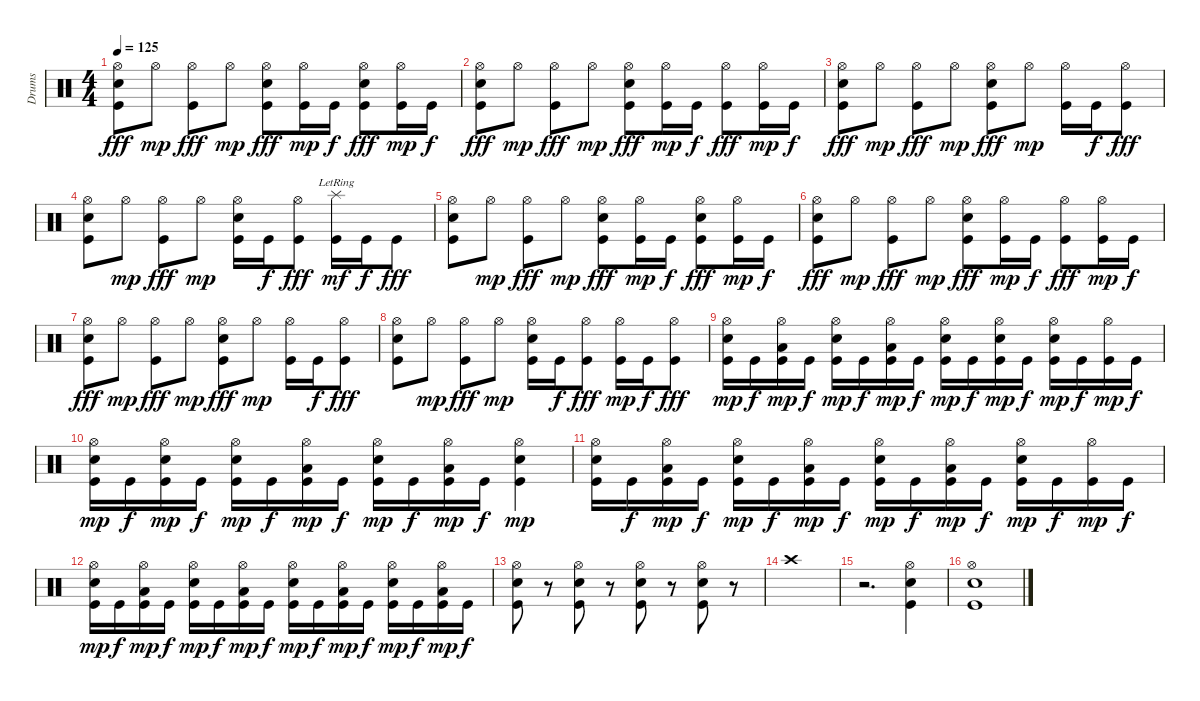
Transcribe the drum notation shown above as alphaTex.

\track ("Drums" "Drums") {instrument percussion}
\staff {score}
\articulation defaults
\ts (4 4)
\tempo 125
\clef neutral
\ks c
("Hi-Hat (open)" "Snare (hit) 2" "Kick (hit)").8{dy fff} "Hi-Hat (open)".8{dy mp} ("Hi-Hat (open)" "Kick (hit)").8{dy fff} "Hi-Hat (open)".8{dy mp} ("Hi-Hat (open)" "Snare (hit) 2" "Kick (hit)").8{dy fff} ("Hi-Hat (open)" "Kick (hit)").16{dy mp} "Kick (hit)".16{dy f} ("Hi-Hat (open)" "Snare (hit) 2" "Kick (hit)").8{dy fff} ("Hi-Hat (open)" "Kick (hit)").16{dy mp} "Kick (hit)".16{dy f} |
("Hi-Hat (open)" "Snare (hit) 2" "Kick (hit)").8{dy fff} "Hi-Hat (open)".8{dy mp} ("Hi-Hat (open)" "Kick (hit)").8{dy fff} "Hi-Hat (open)".8{dy mp} ("Hi-Hat (open)" "Snare (hit) 2" "Kick (hit)").8{dy fff} ("Hi-Hat (open)" "Kick (hit)").16{dy mp} "Kick (hit)".16{dy f} ("Hi-Hat (open)" "Kick (hit)").8{dy fff} ("Hi-Hat (open)" "Kick (hit)").16{dy mp} "Kick (hit)".16{dy f} |
("Hi-Hat (open)" "Snare (hit) 2" "Kick (hit)").8{dy fff} "Hi-Hat (open)".8{dy mp} ("Hi-Hat (open)" "Kick (hit)").8{dy fff} "Hi-Hat (open)".8{dy mp} ("Hi-Hat (open)" "Snare (hit) 2" "Kick (hit)").8{dy fff} "Hi-Hat (open)".8{dy mp} ("Hi-Hat (open)" "Kick (hit)").16 "Kick (hit)".16{dy f} ("Hi-Hat (open)" "Kick (hit)").8{dy fff} |
("Hi-Hat (open)" "Snare (hit) 2" "Kick (hit)").8 "Hi-Hat (open)".8{dy mp} ("Hi-Hat (open)" "Kick (hit)").8{dy fff} "Hi-Hat (open)".8{dy mp} ("Hi-Hat (open)" "Snare (hit) 2" "Kick (hit)").16 "Kick (hit)".16{dy f} ("Hi-Hat (open)" "Kick (hit)").8{dy fff} ("Splash (hit)"{lr} "Kick (hit)").16{dy mf} "Kick (hit)".16{dy f} "Kick (hit)".8{dy fff} |
("Hi-Hat (open)" "Snare (hit) 2" "Kick (hit)").8 "Hi-Hat (open)".8{dy mp} ("Hi-Hat (open)" "Kick (hit)").8{dy fff} "Hi-Hat (open)".8{dy mp} ("Hi-Hat (open)" "Snare (hit) 2" "Kick (hit)").8{dy fff} ("Hi-Hat (open)" "Kick (hit)").16{dy mp} "Kick (hit)".16{dy f} ("Hi-Hat (open)" "Snare (hit) 2" "Kick (hit)").8{dy fff} ("Hi-Hat (open)" "Kick (hit)").16{dy mp} "Kick (hit)".16{dy f} |
("Hi-Hat (open)" "Snare (hit) 2" "Kick (hit)").8{dy fff} "Hi-Hat (open)".8{dy mp} ("Hi-Hat (open)" "Kick (hit)").8{dy fff} "Hi-Hat (open)".8{dy mp} ("Hi-Hat (open)" "Snare (hit) 2" "Kick (hit)").8{dy fff} ("Hi-Hat (open)" "Kick (hit)").16{dy mp} "Kick (hit)".16{dy f} ("Hi-Hat (open)" "Kick (hit)").8{dy fff} ("Hi-Hat (open)" "Kick (hit)").16{dy mp} "Kick (hit)".16{dy f} |
("Hi-Hat (open)" "Snare (hit) 2" "Kick (hit)").8{dy fff} "Hi-Hat (open)".8{dy mp} ("Hi-Hat (open)" "Kick (hit)").8{dy fff} "Hi-Hat (open)".8{dy mp} ("Hi-Hat (open)" "Snare (hit) 2" "Kick (hit)").8{dy fff} "Hi-Hat (open)".8{dy mp} ("Hi-Hat (open)" "Kick (hit)").16 "Kick (hit)".16{dy f} ("Hi-Hat (open)" "Kick (hit)").8{dy fff} |
("Hi-Hat (open)" "Snare (hit) 2" "Kick (hit)").8 "Hi-Hat (open)".8{dy mp} ("Hi-Hat (open)" "Kick (hit)").8{dy fff} "Hi-Hat (open)".8{dy mp} ("Hi-Hat (open)" "Snare (hit) 2" "Kick (hit)").16 "Kick (hit)".16{dy f} ("Hi-Hat (open)" "Kick (hit)").8{dy fff} ("Hi-Hat (open)" "Kick (hit)").16{dy mp} "Kick (hit)".16{dy f} ("Hi-Hat (open)" "Kick (hit)").8{dy fff} |
("Hi-Hat (open)" "Snare (hit) 2" "Kick (hit)").16{dy mp} "Kick (hit)".16{dy f} ("Hi-Hat (open)" "Low Floor Tom (hit)" "Kick (hit)").16{dy mp} "Kick (hit)".16{dy f} ("Hi-Hat (open)" "Snare (hit) 2" "Kick (hit)").16{dy mp} "Kick (hit)".16{dy f} ("Hi-Hat (open)" "Low Floor Tom (hit)" "Kick (hit)").16{dy mp} "Kick (hit)".16{dy f} ("Hi-Hat (open)" "Electric Snare (hit)" "Kick (hit)").16{dy mp} "Kick (hit)".16{dy f} ("Hi-Hat (open)" "Electric Snare (hit)" "Kick (hit)").16{dy mp} "Kick (hit)".16{dy f} ("Hi-Hat (open)" "Snare (hit) 2" "Kick (hit)").16{dy mp} "Kick (hit)".16{dy f} ("Hi-Hat (open)" "Kick (hit)").16{dy mp} "Kick (hit)".16{dy f} |
("Hi-Hat (open)" "Electric Snare (hit)" "Kick (hit)").16{dy mp} "Kick (hit)".16{dy f} ("Hi-Hat (open)" "Electric Snare (hit)" "Kick (hit)").16{dy mp} "Kick (hit)".16{dy f} ("Hi-Hat (open)" "Snare (hit) 2" "Kick (hit)").16{dy mp} "Kick (hit)".16{dy f} ("Hi-Hat (open)" "Low Floor Tom (hit)" "Kick (hit)").16{dy mp} "Kick (hit)".16{dy f} ("Hi-Hat (open)" "Snare (hit) 2" "Kick (hit)").16{dy mp} "Kick (hit)".16{dy f} ("Hi-Hat (open)" "Low Floor Tom (hit)" "Kick (hit)").16{dy mp} "Kick (hit)".16{dy f} ("Hi-Hat (open)" "Electric Snare (hit)" "Kick (hit)").4{dy mp} |
("Hi-Hat (open)" "Snare (hit) 2" "Kick (hit)").16 "Kick (hit)".16{dy f} ("Hi-Hat (open)" "Low Floor Tom (hit)" "Kick (hit)").16{dy mp} "Kick (hit)".16{dy f} ("Hi-Hat (open)" "Snare (hit) 2" "Kick (hit)").16{dy mp} "Kick (hit)".16{dy f} ("Hi-Hat (open)" "Low Floor Tom (hit)" "Kick (hit)").16{dy mp} "Kick (hit)".16{dy f} ("Hi-Hat (open)" "Snare (hit) 2" "Kick (hit)").16{dy mp} "Kick (hit)".16{dy f} ("Hi-Hat (open)" "Low Floor Tom (hit)" "Kick (hit)").16{dy mp} "Kick (hit)".16{dy f} ("Hi-Hat (open)" "Snare (hit) 2" "Kick (hit)").16{dy mp} "Kick (hit)".16{dy f} ("Hi-Hat (open)" "Kick (hit)").16{dy mp} "Kick (hit)".16{dy f} |
("Hi-Hat (open)" "Snare (hit) 2" "Kick (hit)").16{dy mp} "Kick (hit)".16{dy f} ("Hi-Hat (open)" "Low Floor Tom (hit)" "Kick (hit)").16{dy mp} "Kick (hit)".16{dy f} ("Hi-Hat (open)" "Snare (hit) 2" "Kick (hit)").16{dy mp} "Kick (hit)".16{dy f} ("Hi-Hat (open)" "Low Floor Tom (hit)" "Kick (hit)").16{dy mp} "Kick (hit)".16{dy f} ("Hi-Hat (open)" "Snare (hit) 2" "Kick (hit)").16{dy mp} "Kick (hit)".16{dy f} ("Hi-Hat (open)" "Low Floor Tom (hit)" "Kick (hit)").16{dy mp} "Kick (hit)".16{dy f} ("Hi-Hat (open)" "Snare (hit) 2" "Kick (hit)").16{dy mp} "Kick (hit)".16{dy f} ("Hi-Hat (open)" "Low Floor Tom (hit)" "Kick (hit)").16{dy mp} "Kick (hit)".16{dy f} |
("Hi-Hat (open)" "Snare (hit) 2" "Kick (hit)").8 r.8 ("Hi-Hat (open)" "Snare (hit) 2" "Kick (hit)").8 r.8 ("Hi-Hat (open)" "Snare (hit) 2" "Kick (hit)").8 r.8 ("Hi-Hat (open)" "Snare (hit) 2" "Kick (hit)").8 r.8 |
"Crash high (hit)".1 |
r.2{d} ("Hi-Hat (open)" "Snare (hit) 2" "Kick (hit)").4 |
("Hi-Hat (open)" "Snare (hit) 2" "Kick (hit)").1
